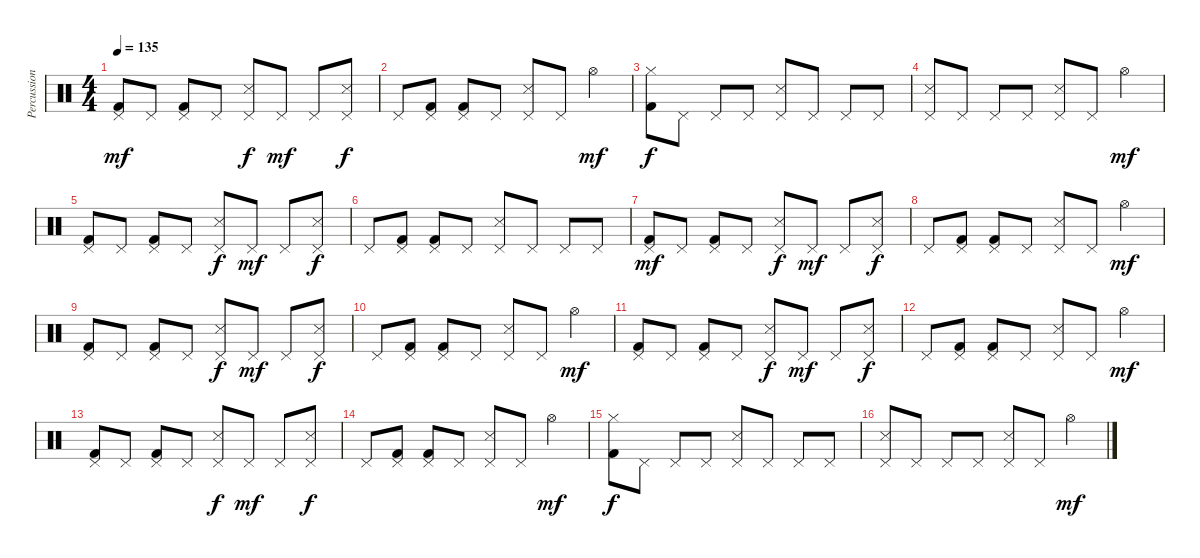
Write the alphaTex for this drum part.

\track ("Percussion" "Percussion") {instrument percussion}
\staff {score}
\articulation defaults
\ts (4 4)
\tempo 135
\clef neutral
\ks c
("Pedal Hi-Hat (hit)" "Kick (hit) 2").8{dy mf} "Pedal Hi-Hat (hit)".8 ("Pedal Hi-Hat (hit)" "Kick (hit) 2").8 "Pedal Hi-Hat (hit)".8 ("Pedal Hi-Hat (hit)" "Snare (side stick) 3").8{dy f} "Pedal Hi-Hat (hit)".8{dy mf} "Pedal Hi-Hat (hit)".8 ("Pedal Hi-Hat (hit)" "Snare (side stick) 3").8{dy f} |
"Pedal Hi-Hat (hit)".8 ("Pedal Hi-Hat (hit)" "Kick (hit) 2").8 ("Pedal Hi-Hat (hit)" "Kick (hit) 2").8 "Pedal Hi-Hat (hit)".8 ("Pedal Hi-Hat (hit)" "Snare (side stick) 3").8 "Pedal Hi-Hat (hit)".8 "Hi-Hat (open)".4{dy mf} |
("Hi-Hat (closed)" "Kick (hit) 2").8{dy f} "Pedal Hi-Hat (hit)".8 "Pedal Hi-Hat (hit)".8 "Pedal Hi-Hat (hit)".8 ("Pedal Hi-Hat (hit)" "Snare (side stick) 3").8 "Pedal Hi-Hat (hit)".8 "Pedal Hi-Hat (hit)".8 "Pedal Hi-Hat (hit)".8 |
("Pedal Hi-Hat (hit)" "Snare (side stick) 3").8 "Pedal Hi-Hat (hit)".8 "Pedal Hi-Hat (hit)".8 "Pedal Hi-Hat (hit)".8 ("Pedal Hi-Hat (hit)" "Snare (side stick) 3").8 "Pedal Hi-Hat (hit)".8 "Hi-Hat (open)".4{dy mf} |
("Pedal Hi-Hat (hit)" "Kick (hit) 2").8 "Pedal Hi-Hat (hit)".8 ("Pedal Hi-Hat (hit)" "Kick (hit) 2").8 "Pedal Hi-Hat (hit)".8 ("Pedal Hi-Hat (hit)" "Snare (side stick) 3").8{dy f} "Pedal Hi-Hat (hit)".8{dy mf} "Pedal Hi-Hat (hit)".8 ("Pedal Hi-Hat (hit)" "Snare (side stick) 3").8{dy f} |
"Pedal Hi-Hat (hit)".8 ("Pedal Hi-Hat (hit)" "Kick (hit) 2").8 ("Pedal Hi-Hat (hit)" "Kick (hit) 2").8 "Pedal Hi-Hat (hit)".8 ("Pedal Hi-Hat (hit)" "Snare (side stick) 3").8 "Pedal Hi-Hat (hit)".8 "Pedal Hi-Hat (hit)".8 "Pedal Hi-Hat (hit)".8 |
("Pedal Hi-Hat (hit)" "Kick (hit) 2").8{dy mf} "Pedal Hi-Hat (hit)".8 ("Pedal Hi-Hat (hit)" "Kick (hit) 2").8 "Pedal Hi-Hat (hit)".8 ("Pedal Hi-Hat (hit)" "Snare (side stick) 3").8{dy f} "Pedal Hi-Hat (hit)".8{dy mf} "Pedal Hi-Hat (hit)".8 ("Pedal Hi-Hat (hit)" "Snare (side stick) 3").8{dy f} |
"Pedal Hi-Hat (hit)".8 ("Pedal Hi-Hat (hit)" "Kick (hit) 2").8 ("Pedal Hi-Hat (hit)" "Kick (hit) 2").8 "Pedal Hi-Hat (hit)".8 ("Pedal Hi-Hat (hit)" "Snare (side stick) 3").8 "Pedal Hi-Hat (hit)".8 "Hi-Hat (open)".4{dy mf} |
("Pedal Hi-Hat (hit)" "Kick (hit) 2").8 "Pedal Hi-Hat (hit)".8 ("Pedal Hi-Hat (hit)" "Kick (hit) 2").8 "Pedal Hi-Hat (hit)".8 ("Pedal Hi-Hat (hit)" "Snare (side stick) 3").8{dy f} "Pedal Hi-Hat (hit)".8{dy mf} "Pedal Hi-Hat (hit)".8 ("Pedal Hi-Hat (hit)" "Snare (side stick) 3").8{dy f} |
"Pedal Hi-Hat (hit)".8 ("Pedal Hi-Hat (hit)" "Kick (hit) 2").8 ("Pedal Hi-Hat (hit)" "Kick (hit) 2").8 "Pedal Hi-Hat (hit)".8 ("Pedal Hi-Hat (hit)" "Snare (side stick) 3").8 "Pedal Hi-Hat (hit)".8 "Hi-Hat (open)".4{dy mf} |
("Pedal Hi-Hat (hit)" "Kick (hit) 2").8 "Pedal Hi-Hat (hit)".8 ("Pedal Hi-Hat (hit)" "Kick (hit) 2").8 "Pedal Hi-Hat (hit)".8 ("Pedal Hi-Hat (hit)" "Snare (side stick) 3").8{dy f} "Pedal Hi-Hat (hit)".8{dy mf} "Pedal Hi-Hat (hit)".8 ("Pedal Hi-Hat (hit)" "Snare (side stick) 3").8{dy f} |
"Pedal Hi-Hat (hit)".8 ("Pedal Hi-Hat (hit)" "Kick (hit) 2").8 ("Pedal Hi-Hat (hit)" "Kick (hit) 2").8 "Pedal Hi-Hat (hit)".8 ("Pedal Hi-Hat (hit)" "Snare (side stick) 3").8 "Pedal Hi-Hat (hit)".8 "Hi-Hat (open)".4{dy mf} |
("Pedal Hi-Hat (hit)" "Kick (hit) 2").8 "Pedal Hi-Hat (hit)".8 ("Pedal Hi-Hat (hit)" "Kick (hit) 2").8 "Pedal Hi-Hat (hit)".8 ("Pedal Hi-Hat (hit)" "Snare (side stick) 3").8{dy f} "Pedal Hi-Hat (hit)".8{dy mf} "Pedal Hi-Hat (hit)".8 ("Pedal Hi-Hat (hit)" "Snare (side stick) 3").8{dy f} |
"Pedal Hi-Hat (hit)".8 ("Pedal Hi-Hat (hit)" "Kick (hit) 2").8 ("Pedal Hi-Hat (hit)" "Kick (hit) 2").8 "Pedal Hi-Hat (hit)".8 ("Pedal Hi-Hat (hit)" "Snare (side stick) 3").8 "Pedal Hi-Hat (hit)".8 "Hi-Hat (open)".4{dy mf} |
("Hi-Hat (closed)" "Kick (hit) 2").8{dy f} "Pedal Hi-Hat (hit)".8 "Pedal Hi-Hat (hit)".8 "Pedal Hi-Hat (hit)".8 ("Pedal Hi-Hat (hit)" "Snare (side stick) 3").8 "Pedal Hi-Hat (hit)".8 "Pedal Hi-Hat (hit)".8 "Pedal Hi-Hat (hit)".8 |
("Pedal Hi-Hat (hit)" "Snare (side stick) 3").8 "Pedal Hi-Hat (hit)".8 "Pedal Hi-Hat (hit)".8 "Pedal Hi-Hat (hit)".8 ("Pedal Hi-Hat (hit)" "Snare (side stick) 3").8 "Pedal Hi-Hat (hit)".8 "Hi-Hat (open)".4{dy mf}
